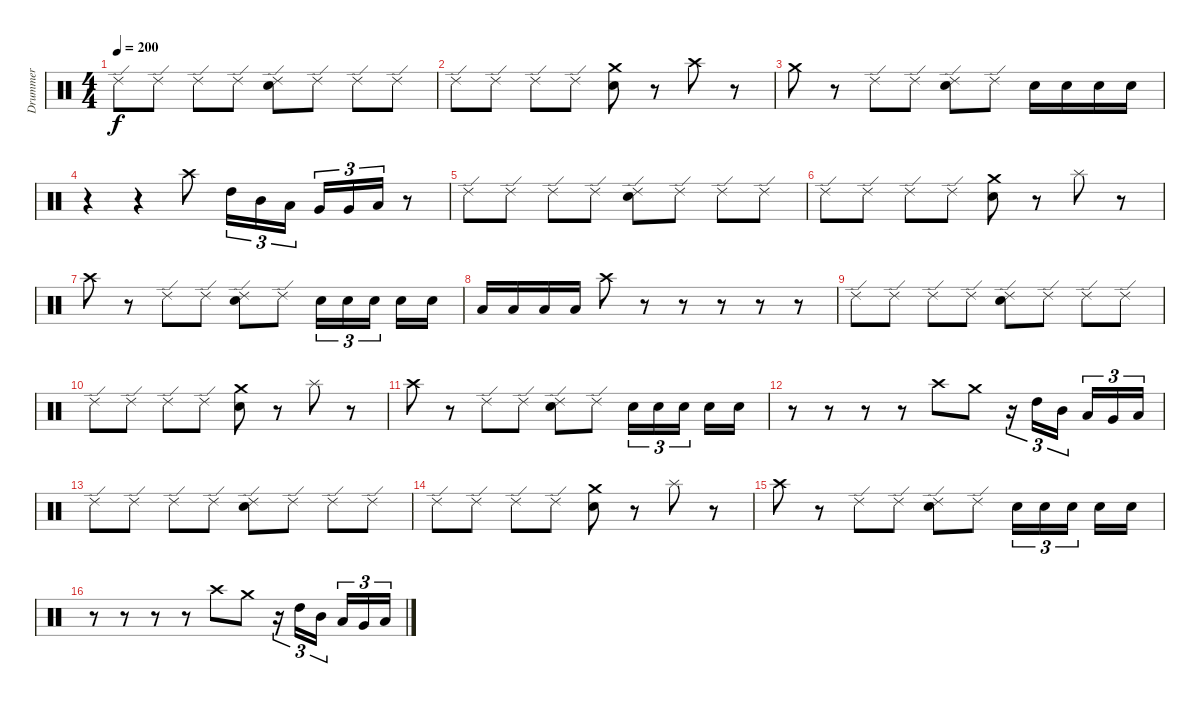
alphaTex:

\track ("Drummer" "Drummer") {instrument percussion}
\staff {score}
\articulation defaults
\ts (4 4)
\tempo 200
\clef neutral
\ks c "Ride (edge) 2".8{dy f} "Ride (edge) 2".8 "Ride (edge) 2".8 "Ride (edge) 2".8
("Ride (edge) 2" "Electric Snare (hit)").8 "Ride (edge) 2".8 "Ride (edge) 2".8 "Ride (edge) 2".8 |
"Ride (edge) 2".8 "Ride (edge) 2".8 "Ride (edge) 2".8 "Ride (edge) 2".8 ("Crash medium (hit)" "Electric Snare (hit)").8 r.8 "Crash high (hit)".8 r.8 |
"Crash medium (hit)".8 r.8 "Ride (edge) 2".8 "Ride (edge) 2".8 ("Ride (edge) 2" "Electric Snare (hit)").8 "Ride (edge) 2".8 "Electric Snare (hit)".16 "Electric Snare (hit)".16 "Electric Snare (hit)".16 "Electric Snare (hit)".16 |
r.4 r.4 "Crash high (hit)".8 "High Tom (hit)".16{tu (3 2)} "Mid Tom (hit)".16{tu (3 2)} "Low Tom (hit)".16{tu (3 2)} "Very Low Tom (hit)".16{tu (3 2)} "Very Low Tom (hit)".16{tu (3 2)} "Low Floor Tom (hit)".16{tu (3 2)} r.8 |
"Ride (edge) 2".8 "Ride (edge) 2".8 "Ride (edge) 2".8 "Ride (edge) 2".8 ("Ride (edge) 2" "Electric Snare (hit)").8 "Ride (edge) 2".8 "Ride (edge) 2".8 "Ride (edge) 2".8 |
"Ride (edge) 2".8 "Ride (edge) 2".8 "Ride (edge) 2".8 "Ride (edge) 2".8 ("Crash medium (hit)" "Electric Snare (hit)").8 r.8 "Splash (hit)".8 r.8 |
"Crash high (hit)".8 r.8 "Ride (edge) 2".8 "Ride (edge) 2".8 ("Ride (edge) 2" "Electric Snare (hit)").8 "Ride (edge) 2".8 "Electric Snare (hit)".16{tu (3 2)} "Electric Snare (hit)".16{tu (3 2)} "Electric Snare (hit)".16{tu (3 2) beam splitsecondary} "Electric Snare (hit)".16 "Electric Snare (hit)".16 |
"Low Tom (hit)".16 "Low Tom (hit)".16 "Low Tom (hit)".16 "Low Tom (hit)".16 "Crash high (hit)".8 r.8 r.8 r.8 r.8 r.8 |
"Ride (edge) 2".8 "Ride (edge) 2".8 "Ride (edge) 2".8 "Ride (edge) 2".8 ("Ride (edge) 2" "Electric Snare (hit)").8 "Ride (edge) 2".8 "Ride (edge) 2".8 "Ride (edge) 2".8 |
"Ride (edge) 2".8 "Ride (edge) 2".8 "Ride (edge) 2".8 "Ride (edge) 2".8 ("Crash medium (hit)" "Electric Snare (hit)").8 r.8 "Splash (hit)".8 r.8 |
"Crash high (hit)".8 r.8 "Ride (edge) 2".8 "Ride (edge) 2".8 ("Ride (edge) 2" "Electric Snare (hit)").8 "Ride (edge) 2".8 "Electric Snare (hit)".16{tu (3 2)} "Electric Snare (hit)".16{tu (3 2)} "Electric Snare (hit)".16{tu (3 2) beam splitsecondary} "Electric Snare (hit)".16 "Electric Snare (hit)".16 |
r.8 r.8 r.8 r.8 "Crash high (hit)".8 "Crash medium (hit)".8 r.16{tu (3 2)} "High Tom (hit)".16{tu (3 2)} "Mid Tom (hit)".16{tu (3 2) beam splitsecondary} "Low Tom (hit)".16{tu (3 2)} "Very Low Tom (hit)".16{tu (3 2)} "Low Floor Tom (hit)".16{tu (3 2)} |
"Ride (edge) 2".8 "Ride (edge) 2".8 "Ride (edge) 2".8 "Ride (edge) 2".8 ("Ride (edge) 2" "Electric Snare (hit)").8 "Ride (edge) 2".8 "Ride (edge) 2".8 "Ride (edge) 2".8 |
"Ride (edge) 2".8 "Ride (edge) 2".8 "Ride (edge) 2".8 "Ride (edge) 2".8 ("Crash medium (hit)" "Electric Snare (hit)").8 r.8 "Splash (hit)".8 r.8 |
"Crash high (hit)".8 r.8 "Ride (edge) 2".8 "Ride (edge) 2".8 ("Ride (edge) 2" "Electric Snare (hit)").8 "Ride (edge) 2".8 "Electric Snare (hit)".16{tu (3 2)} "Electric Snare (hit)".16{tu (3 2)} "Electric Snare (hit)".16{tu (3 2) beam splitsecondary} "Electric Snare (hit)".16 "Electric Snare (hit)".16 |
r.8 r.8 r.8 r.8 "Crash high (hit)".8 "Crash medium (hit)".8 r.16{tu (3 2)} "High Tom (hit)".16{tu (3 2)} "Mid Tom (hit)".16{tu (3 2) beam splitsecondary} "Low Tom (hit)".16{tu (3 2)} "Very Low Tom (hit)".16{tu (3 2)} "Low Floor Tom (hit)".16{tu (3 2)}
